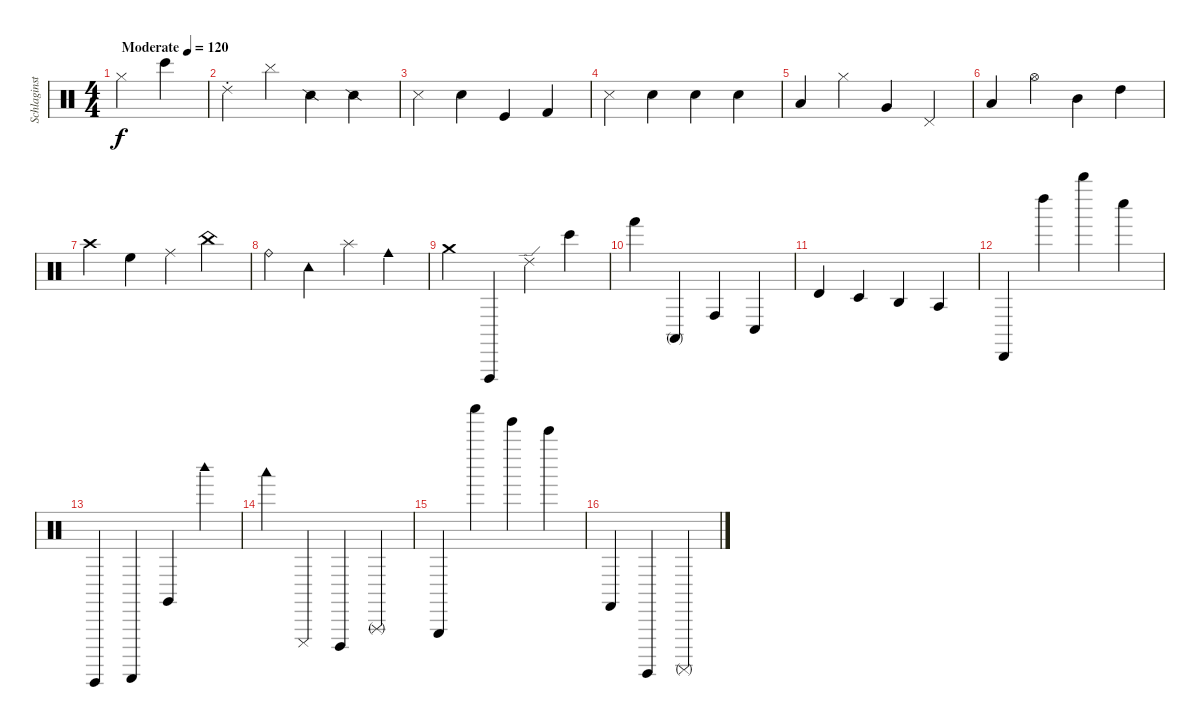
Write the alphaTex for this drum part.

\track ("Schlaginstrumente - Auswahl" "Schlaginst") {instrument percussion}
\staff {score}
\articulation defaults
\ts (4 4)
\tempo (120 "Moderate")
\clef neutral
\ks c "Hi-Hat (closed)".4{dy f} "Bongo High (hit)".4
|
"Ride (choke) 2".4 "Cymbal (hit)".4 "Snare (side stick) 2".4 "Snare (side stick) 2".4 |
"Metronome (hit)".4 "Metronome (bell)".4 "Kick (hit)".4 "Kick (hit) 2".4 |
"Snare (side stick) 3".4 "Snare (hit) 2".4 "Hand Clap (hit)".4 "Electric Snare (hit)".4 |
"Low Floor Tom (hit)".4 "Hi-Hat (closed)".4 "Very Low Tom (hit)".4 "Pedal Hi-Hat (hit)".4 |
"Low Tom (hit)".4 "Hi-Hat (open)".4 "Mid Tom (hit)".4 "High Tom (hit)".4 |
"Crash high (hit)".4 "High Floor Tom (hit)".4 "Ride (middle)".4 "China (hit)".4 |
"Ride (bell)".4 "Tambourine (hit)".4 "Splash (hit)".4 "Cowbell medium (hit)".4 |
"Crash medium (hit)".4 "Vibraslap (hit)".4 "Ride (edge) 2".4 "Bongo High (hit)".4 |
"Hand (hit)".4 "Conga high (mute)".4 "Conga high (hit)".4 "Conga low (hit)".4 |
"Timbale high (hit)".4 "Timbale low (hit)".4 "Agogo high (hit)".4 "Agogo tow (hit)".4 |
"Cabasa (hit)".4 "Left Maraca (hit)".4 "Whistle high (hit)".4 "Whistle low (hit)".4 |
"Guiro (hit)".4 "Guiro (scrap-return)".4 "Claves (hit)".4 "Woodblock high (hit)".4 |
"Woodblock low (hit)".4 "Cuica (mute)".4 "Cuica (open)".4 "Triangle (rnute)".4 |
"Triangle (hit)".4 "Shaker (hit)".4 "Tinkle Bell (hit)".4 "Bell Tree (hit)".4 |
"Castanets (hit)".4 "Surdo (hit)".4 "Surdo (mute)".4
